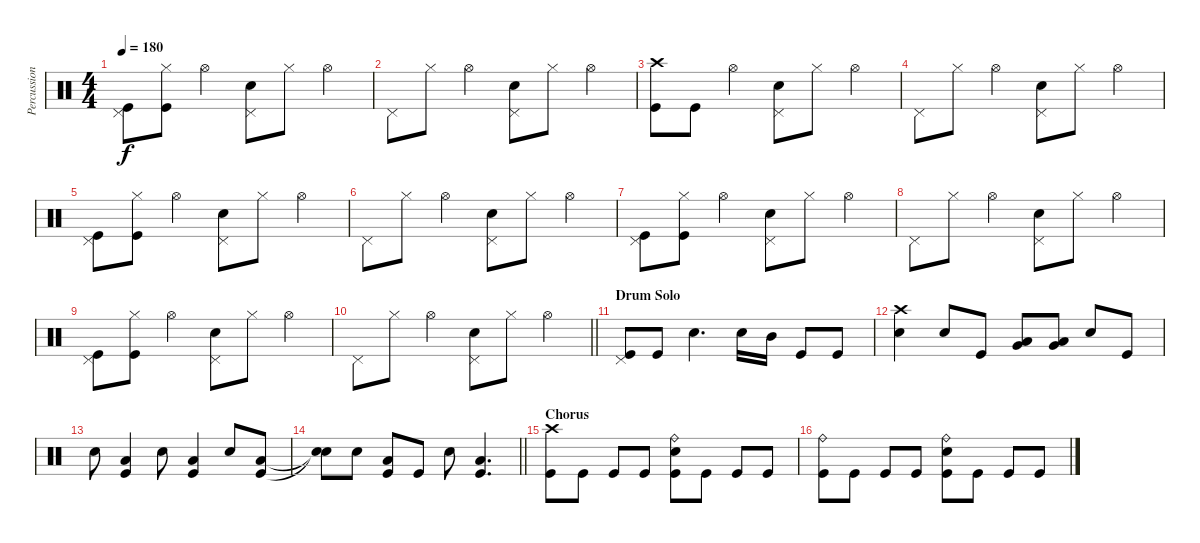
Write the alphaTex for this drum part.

\track ("Percussion" "Percussion") {instrument percussion}
\staff {score}
\articulation defaults
\ts (4 4)
\tempo 180
\clef neutral
\ks c
("Pedal Hi-Hat (hit)" "Kick (hit)").8{dy f} ("Hi-Hat (closed)" "Kick (hit)").8 "Hi-Hat (open)".4 ("Pedal Hi-Hat (hit)" "Electric Snare (hit)").8 "Hi-Hat (closed)".8 "Hi-Hat (open)".4 |
"Pedal Hi-Hat (hit)".8 "Hi-Hat (closed)".8 "Hi-Hat (open)".4 ("Pedal Hi-Hat (hit)" "Electric Snare (hit)").8 "Hi-Hat (closed)".8 "Hi-Hat (open)".4 |
("Crash high (hit)" "Kick (hit)").8 "Kick (hit)".8 "Hi-Hat (open)".4 ("Pedal Hi-Hat (hit)" "Electric Snare (hit)").8 "Hi-Hat (closed)".8 "Hi-Hat (open)".4 |
"Pedal Hi-Hat (hit)".8 "Hi-Hat (closed)".8 "Hi-Hat (open)".4 ("Pedal Hi-Hat (hit)" "Electric Snare (hit)").8 "Hi-Hat (closed)".8 "Hi-Hat (open)".4 |
("Pedal Hi-Hat (hit)" "Kick (hit)").8 ("Hi-Hat (closed)" "Kick (hit)").8 "Hi-Hat (open)".4 ("Pedal Hi-Hat (hit)" "Electric Snare (hit)").8 "Hi-Hat (closed)".8 "Hi-Hat (open)".4 |
"Pedal Hi-Hat (hit)".8 "Hi-Hat (closed)".8 "Hi-Hat (open)".4 ("Pedal Hi-Hat (hit)" "Electric Snare (hit)").8 "Hi-Hat (closed)".8 "Hi-Hat (open)".4 |
("Pedal Hi-Hat (hit)" "Kick (hit)").8 ("Hi-Hat (closed)" "Kick (hit)").8 "Hi-Hat (open)".4 ("Pedal Hi-Hat (hit)" "Electric Snare (hit)").8 "Hi-Hat (closed)".8 "Hi-Hat (open)".4 |
"Pedal Hi-Hat (hit)".8 "Hi-Hat (closed)".8 "Hi-Hat (open)".4 ("Pedal Hi-Hat (hit)" "Electric Snare (hit)").8 "Hi-Hat (closed)".8 "Hi-Hat (open)".4 |
("Pedal Hi-Hat (hit)" "Kick (hit)").8 ("Hi-Hat (closed)" "Kick (hit)").8 "Hi-Hat (open)".4 ("Pedal Hi-Hat (hit)" "Electric Snare (hit)").8 "Hi-Hat (closed)".8 "Hi-Hat (open)".4 |
\barLineRight lightlight "Pedal Hi-Hat (hit)".8 "Hi-Hat (closed)".8 "Hi-Hat (open)".4
("Pedal Hi-Hat (hit)" "Electric Snare (hit)").8 "Hi-Hat (closed)".8 "Hi-Hat (open)".4 |
\section ("" "Drum Solo")
("Pedal Hi-Hat (hit)" "Kick (hit)").8 "Kick (hit)".8 "Electric Snare (hit)".4{d} "Electric Snare (hit)".16 "Mid Tom (hit)".16 "Kick (hit)".8 "Kick (hit)".8 |
("Crash high (hit)" "Electric Snare (hit)").4 "Electric Snare (hit)".8 "Kick (hit)".8 ("Low Tom (hit)" "Very Low Tom (hit)").8 ("Low Tom (hit)" "Very Low Tom (hit)").8 "Electric Snare (hit)".8 "Kick (hit)".8 |
"Electric Snare (hit)".8 ("Low Tom (hit)" "Kick (hit)").4 "Electric Snare (hit)".8 ("Low Tom (hit)" "Kick (hit)").4 "Electric Snare (hit)".8 ("Low Tom (hit)" "Kick (hit)").8 |
\barLineRight lightlight
("Snare (hit)"{t} "Snare (hit)"{t}).8 "Electric Snare (hit)".8 ("Low Tom (hit)" "Kick (hit)").8 "Kick (hit)".8 "Electric Snare (hit)".8 ("Low Tom (hit)" "Kick (hit)").4{d} |
\section ("" "Chorus")
("Crash high (hit)" "Kick (hit)").8 "Kick (hit)".8 "Kick (hit)".8 "Kick (hit)".8 ("Ride (bell)" "Electric Snare (hit)" "Kick (hit)").8 "Kick (hit)".8 "Kick (hit)".8 "Kick (hit)".8 |
("Ride (bell)" "Kick (hit)").8 "Kick (hit)".8 "Kick (hit)".8 "Kick (hit)".8 ("Ride (bell)" "Electric Snare (hit)" "Kick (hit)").8 "Kick (hit)".8 "Kick (hit)".8 "Kick (hit)".8
